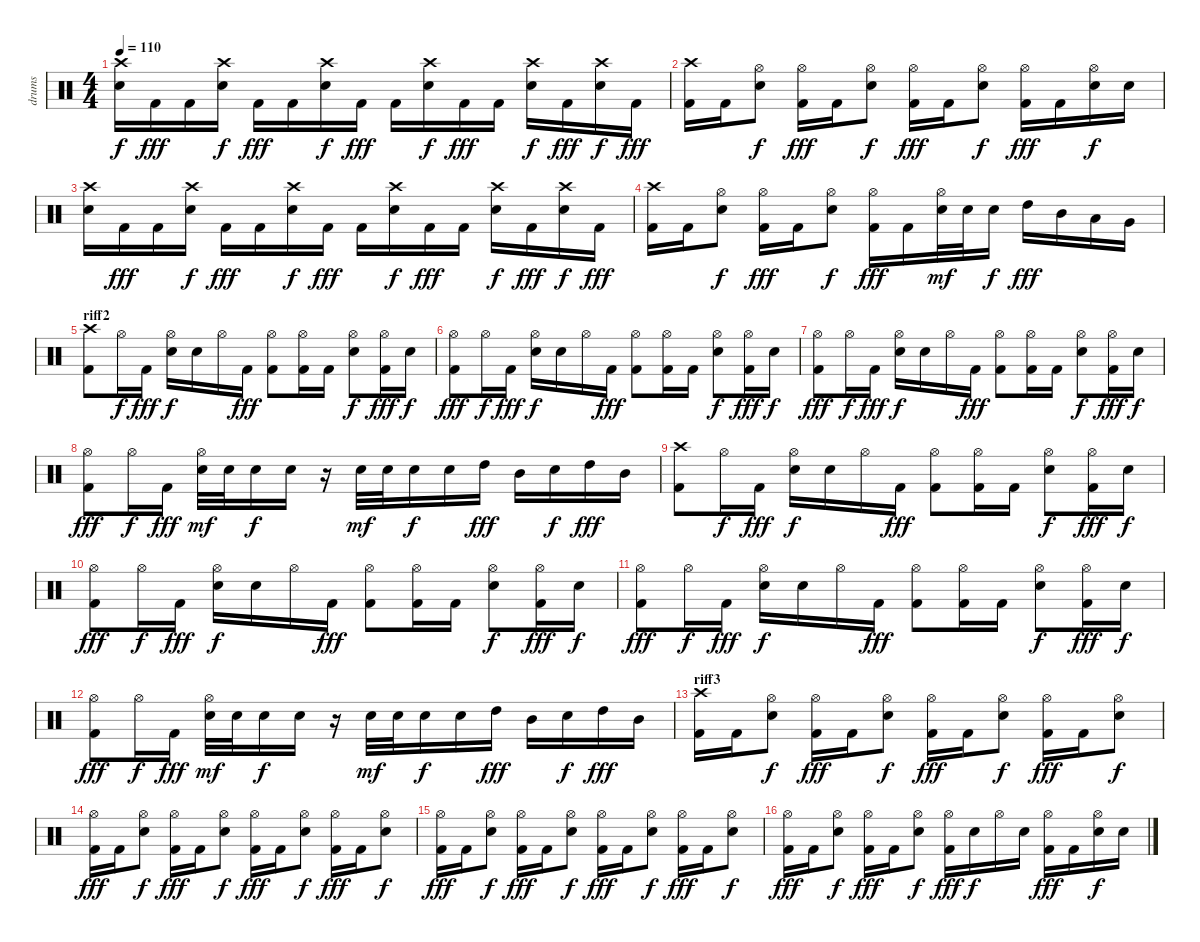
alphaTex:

\track ("drums" "drums") {instrument percussion}
\staff {score}
\articulation defaults
\ts (4 4)
\tempo 110
\clef neutral
\ks c
("Crash high (hit)" "Snare (hit) 2").16{dy f} "Kick (hit) 2".16{dy fff} "Kick (hit) 2".16 ("Crash high (hit)" "Snare (hit) 2").16{dy f} "Kick (hit) 2".16{dy fff} "Kick (hit) 2".16 ("Crash high (hit)" "Snare (hit) 2").16{dy f} "Kick (hit) 2".16{dy fff} "Kick (hit) 2".16 ("Crash high (hit)" "Snare (hit) 2").16{dy f} "Kick (hit) 2".16{dy fff} "Kick (hit) 2".16 ("Crash high (hit)" "Snare (hit) 2").16{dy f} "Kick (hit) 2".16{dy fff} ("Crash high (hit)" "Snare (hit) 2").16{dy f} "Kick (hit) 2".16{dy fff} |
("Crash high (hit)" "Kick (hit) 2").16 "Kick (hit) 2".16 ("Hi-Hat (open)" "Snare (hit) 2").8{dy f} ("Hi-Hat (open)" "Kick (hit) 2").16{dy fff} "Kick (hit) 2".16 ("Hi-Hat (open)" "Snare (hit) 2").8{dy f} ("Hi-Hat (open)" "Kick (hit) 2").16{dy fff} "Kick (hit) 2".16 ("Hi-Hat (open)" "Snare (hit) 2").8{dy f} ("Hi-Hat (open)" "Kick (hit) 2").16{dy fff} "Kick (hit) 2".16 ("Hi-Hat (open)" "Snare (hit) 2").16{dy f} "Snare (hit) 2".16 |
("Crash high (hit)" "Snare (hit) 2").16 "Kick (hit) 2".16{dy fff} "Kick (hit) 2".16 ("Crash high (hit)" "Snare (hit) 2").16{dy f} "Kick (hit) 2".16{dy fff} "Kick (hit) 2".16 ("Crash high (hit)" "Snare (hit) 2").16{dy f} "Kick (hit) 2".16{dy fff} "Kick (hit) 2".16 ("Crash high (hit)" "Snare (hit) 2").16{dy f} "Kick (hit) 2".16{dy fff} "Kick (hit) 2".16 ("Crash high (hit)" "Snare (hit) 2").16{dy f} "Kick (hit) 2".16{dy fff} ("Crash high (hit)" "Snare (hit) 2").16{dy f} "Kick (hit) 2".16{dy fff} |
("Crash high (hit)" "Kick (hit) 2").16 "Kick (hit) 2".16 ("Hi-Hat (open)" "Snare (hit) 2").8{dy f} ("Hi-Hat (open)" "Kick (hit) 2").16{dy fff} "Kick (hit) 2".16 ("Hi-Hat (open)" "Snare (hit) 2").8{dy f} ("Hi-Hat (open)" "Kick (hit) 2").16{dy fff} "Kick (hit) 2".16 ("Hi-Hat (open)" "Snare (hit) 2").32{dy mf} "Snare (hit) 2".32 "Snare (hit) 2".16{dy f} "High Tom (hit)".16{dy fff} "Mid Tom (hit)".16 "Low Tom (hit)".16 "Very Low Tom (hit)".16 |
\section ("" "riff2")
("Crash high (hit)" "Kick (hit) 2").8 "Hi-Hat (open)".16{dy f} "Kick (hit) 2".16{dy fff} ("Hi-Hat (open)" "Snare (hit) 2").16{dy f} "Snare (hit) 2".16 "Hi-Hat (open)".16 "Kick (hit) 2".16{dy fff} ("Hi-Hat (open)" "Kick (hit) 2").8 ("Hi-Hat (open)" "Kick (hit) 2").16 "Kick (hit) 2".16 ("Hi-Hat (open)" "Snare (hit) 2").8{dy f} ("Hi-Hat (open)" "Kick (hit) 2").16{dy fff} "Snare (hit) 2".16{dy f} |
("Hi-Hat (open)" "Kick (hit) 2").8{dy fff} "Hi-Hat (open)".16{dy f} "Kick (hit) 2".16{dy fff} ("Hi-Hat (open)" "Snare (hit) 2").16{dy f} "Snare (hit) 2".16 "Hi-Hat (open)".16 "Kick (hit) 2".16{dy fff} ("Hi-Hat (open)" "Kick (hit) 2").8 ("Hi-Hat (open)" "Kick (hit) 2").16 "Kick (hit) 2".16 ("Hi-Hat (open)" "Snare (hit) 2").8{dy f} ("Hi-Hat (open)" "Kick (hit) 2").16{dy fff} "Snare (hit) 2".16{dy f} |
("Hi-Hat (open)" "Kick (hit) 2").8{dy fff} "Hi-Hat (open)".16{dy f} "Kick (hit) 2".16{dy fff} ("Hi-Hat (open)" "Snare (hit) 2").16{dy f} "Snare (hit) 2".16 "Hi-Hat (open)".16 "Kick (hit) 2".16{dy fff} ("Hi-Hat (open)" "Kick (hit) 2").8 ("Hi-Hat (open)" "Kick (hit) 2").16 "Kick (hit) 2".16 ("Hi-Hat (open)" "Snare (hit) 2").8{dy f} ("Hi-Hat (open)" "Kick (hit) 2").16{dy fff} "Snare (hit) 2".16{dy f} |
("Hi-Hat (open)" "Kick (hit) 2").8{dy fff} "Hi-Hat (open)".16{dy f} "Kick (hit) 2".16{dy fff} ("Hi-Hat (open)" "Snare (hit) 2").32{dy mf} "Snare (hit) 2".32 "Snare (hit) 2".16{dy f} "Snare (hit) 2".16 r.16 "Snare (hit) 2".32{dy mf} "Snare (hit) 2".32 "Snare (hit) 2".16{dy f} "Snare (hit) 2".16 "High Tom (hit)".16{dy fff} "Mid Tom (hit)".16 "Snare (hit) 2".16{dy f} "High Tom (hit)".16{dy fff} "Mid Tom (hit)".16 |
("Crash high (hit)" "Kick (hit) 2").8 "Hi-Hat (open)".16{dy f} "Kick (hit) 2".16{dy fff} ("Hi-Hat (open)" "Snare (hit) 2").16{dy f} "Snare (hit) 2".16 "Hi-Hat (open)".16 "Kick (hit) 2".16{dy fff} ("Hi-Hat (open)" "Kick (hit) 2").8 ("Hi-Hat (open)" "Kick (hit) 2").16 "Kick (hit) 2".16 ("Hi-Hat (open)" "Snare (hit) 2").8{dy f} ("Hi-Hat (open)" "Kick (hit) 2").16{dy fff} "Snare (hit) 2".16{dy f} |
("Hi-Hat (open)" "Kick (hit) 2").8{dy fff} "Hi-Hat (open)".16{dy f} "Kick (hit) 2".16{dy fff} ("Hi-Hat (open)" "Snare (hit) 2").16{dy f} "Snare (hit) 2".16 "Hi-Hat (open)".16 "Kick (hit) 2".16{dy fff} ("Hi-Hat (open)" "Kick (hit) 2").8 ("Hi-Hat (open)" "Kick (hit) 2").16 "Kick (hit) 2".16 ("Hi-Hat (open)" "Snare (hit) 2").8{dy f} ("Hi-Hat (open)" "Kick (hit) 2").16{dy fff} "Snare (hit) 2".16{dy f} |
("Hi-Hat (open)" "Kick (hit) 2").8{dy fff} "Hi-Hat (open)".16{dy f} "Kick (hit) 2".16{dy fff} ("Hi-Hat (open)" "Snare (hit) 2").16{dy f} "Snare (hit) 2".16 "Hi-Hat (open)".16 "Kick (hit) 2".16{dy fff} ("Hi-Hat (open)" "Kick (hit) 2").8 ("Hi-Hat (open)" "Kick (hit) 2").16 "Kick (hit) 2".16 ("Hi-Hat (open)" "Snare (hit) 2").8{dy f} ("Hi-Hat (open)" "Kick (hit) 2").16{dy fff} "Snare (hit) 2".16{dy f} |
("Hi-Hat (open)" "Kick (hit) 2").8{dy fff} "Hi-Hat (open)".16{dy f} "Kick (hit) 2".16{dy fff} ("Hi-Hat (open)" "Snare (hit) 2").32{dy mf} "Snare (hit) 2".32 "Snare (hit) 2".16{dy f} "Snare (hit) 2".16 r.16 "Snare (hit) 2".32{dy mf} "Snare (hit) 2".32 "Snare (hit) 2".16{dy f} "Snare (hit) 2".16 "High Tom (hit)".16{dy fff} "Mid Tom (hit)".16 "Snare (hit) 2".16{dy f} "High Tom (hit)".16{dy fff} "Mid Tom (hit)".16 |
\section ("" "riff3 ")
("Crash high (hit)" "Kick (hit) 2").16 "Kick (hit) 2".16 ("Hi-Hat (open)" "Snare (hit) 2").8{dy f} ("Hi-Hat (open)" "Kick (hit) 2").16{dy fff} "Kick (hit) 2".16 ("Hi-Hat (open)" "Snare (hit) 2").8{dy f} ("Hi-Hat (open)" "Kick (hit) 2").16{dy fff} "Kick (hit) 2".16 ("Hi-Hat (open)" "Snare (hit) 2").8{dy f} ("Hi-Hat (open)" "Kick (hit) 2").16{dy fff} "Kick (hit) 2".16 ("Hi-Hat (open)" "Snare (hit) 2").8{dy f} |
("Hi-Hat (open)" "Kick (hit) 2").16{dy fff} "Kick (hit) 2".16 ("Hi-Hat (open)" "Snare (hit) 2").8{dy f} ("Hi-Hat (open)" "Kick (hit) 2").16{dy fff} "Kick (hit) 2".16 ("Hi-Hat (open)" "Snare (hit) 2").8{dy f} ("Hi-Hat (open)" "Kick (hit) 2").16{dy fff} "Kick (hit) 2".16 ("Hi-Hat (open)" "Snare (hit) 2").8{dy f} ("Hi-Hat (open)" "Kick (hit) 2").16{dy fff} "Kick (hit) 2".16 ("Hi-Hat (open)" "Snare (hit) 2").8{dy f} |
("Hi-Hat (open)" "Kick (hit) 2").16{dy fff} "Kick (hit) 2".16 ("Hi-Hat (open)" "Snare (hit) 2").8{dy f} ("Hi-Hat (open)" "Kick (hit) 2").16{dy fff} "Kick (hit) 2".16 ("Hi-Hat (open)" "Snare (hit) 2").8{dy f} ("Hi-Hat (open)" "Kick (hit) 2").16{dy fff} "Kick (hit) 2".16 ("Hi-Hat (open)" "Snare (hit) 2").8{dy f} ("Hi-Hat (open)" "Kick (hit) 2").16{dy fff} "Kick (hit) 2".16 ("Hi-Hat (open)" "Snare (hit) 2").8{dy f} |
("Hi-Hat (open)" "Kick (hit) 2").16{dy fff} "Kick (hit) 2".16 ("Hi-Hat (open)" "Snare (hit) 2").8{dy f} ("Hi-Hat (open)" "Kick (hit) 2").16{dy fff} "Kick (hit) 2".16 ("Hi-Hat (open)" "Snare (hit) 2").8{dy f} ("Hi-Hat (open)" "Kick (hit) 2").16{dy fff} "Snare (hit) 2".16{dy f} "Hi-Hat (open)".16 "Snare (hit) 2".16 ("Hi-Hat (open)" "Kick (hit) 2").16{dy fff} "Kick (hit) 2".16 ("Hi-Hat (open)" "Snare (hit) 2").16{dy f} "Snare (hit) 2".16
